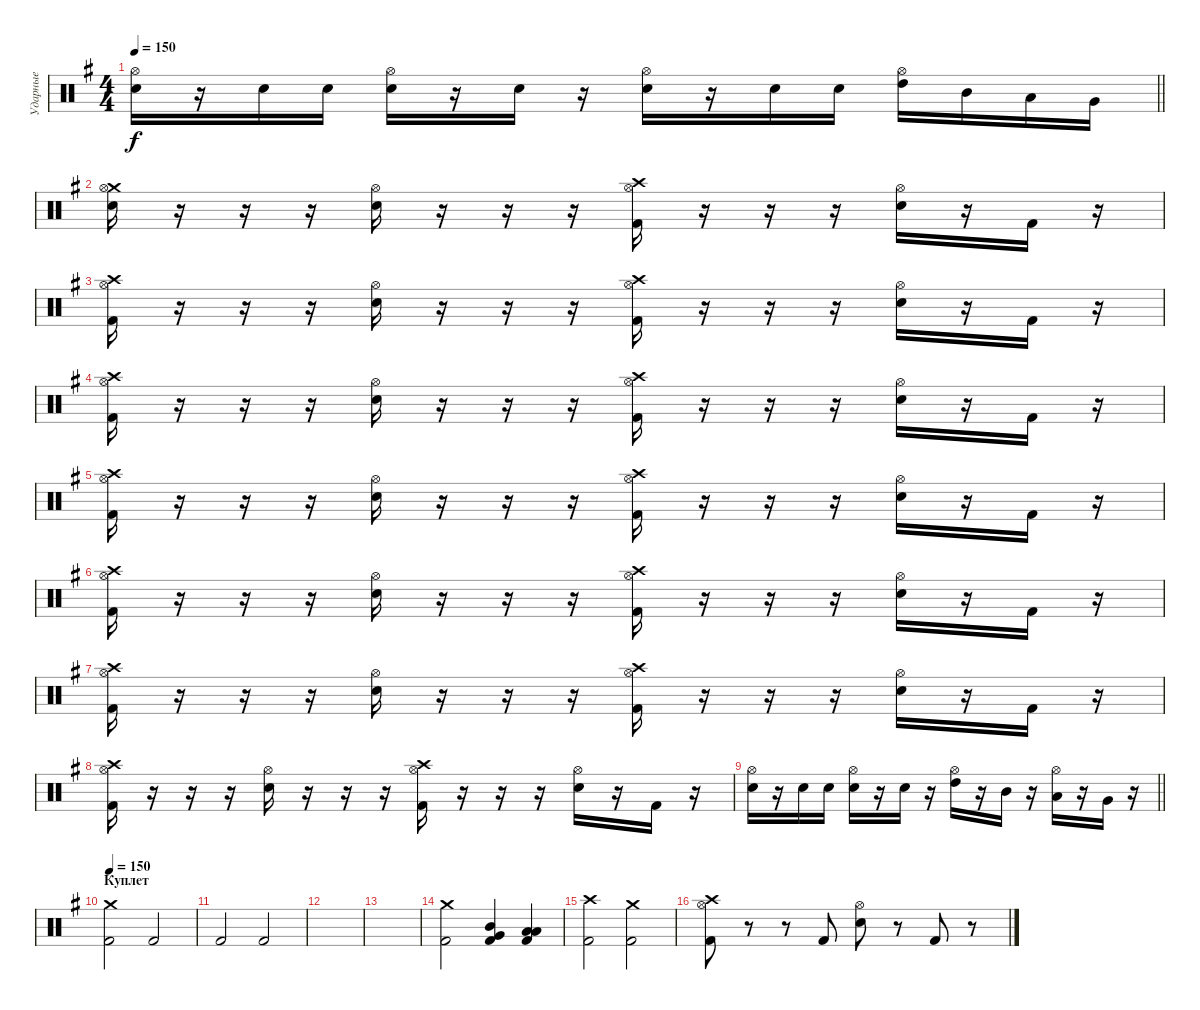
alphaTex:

\track ("Ударные" "Ударные") {instrument percussion}
\staff {score}
\articulation defaults
\ts (4 4)
\tempo 150
\clef neutral
\barLineRight lightlight
\ks eminor
("Electric Snare (hit)" "Hi-Hat (open)").16{dy f} r.16 "Electric Snare (hit)".16 "Electric Snare (hit)".16 ("Electric Snare (hit)" "Hi-Hat (open)").16 r.16 "Electric Snare (hit)".16 r.16 ("Electric Snare (hit)" "Hi-Hat (open)").16 r.16 "Electric Snare (hit)".16 "Electric Snare (hit)".16 ("High Tom (hit)" "Hi-Hat (open)").16 "Mid Tom (hit)".16 "Low Tom (hit)".16 "Very Low Tom (hit)".16 |
("Crash medium (hit)" "Electric Snare (hit)" "Hi-Hat (open)").16 r.16 r.16 r.16 ("Electric Snare (hit)" "Hi-Hat (open)").16 r.16 r.16 r.16 ("Crash high (hit)" "Kick (hit) 2" "Hi-Hat (open)").16 r.16 r.16 r.16 ("Electric Snare (hit)" "Hi-Hat (open)").16 r.16 "Kick (hit) 2".16 r.16 |
("Crash high (hit)" "Kick (hit) 2" "Hi-Hat (open)").16 r.16 r.16 r.16 ("Electric Snare (hit)" "Hi-Hat (open)").16 r.16 r.16 r.16 ("Crash high (hit)" "Kick (hit) 2" "Hi-Hat (open)").16 r.16 r.16 r.16 ("Electric Snare (hit)" "Hi-Hat (open)").16 r.16 "Kick (hit) 2".16 r.16 |
("Crash high (hit)" "Kick (hit) 2" "Hi-Hat (open)").16 r.16 r.16 r.16 ("Electric Snare (hit)" "Hi-Hat (open)").16 r.16 r.16 r.16 ("Crash high (hit)" "Kick (hit) 2" "Hi-Hat (open)").16 r.16 r.16 r.16 ("Electric Snare (hit)" "Hi-Hat (open)").16 r.16 "Kick (hit) 2".16 r.16 |
("Crash high (hit)" "Kick (hit) 2" "Hi-Hat (open)").16 r.16 r.16 r.16 ("Electric Snare (hit)" "Hi-Hat (open)").16 r.16 r.16 r.16 ("Crash high (hit)" "Kick (hit) 2" "Hi-Hat (open)").16 r.16 r.16 r.16 ("Electric Snare (hit)" "Hi-Hat (open)").16 r.16 "Kick (hit) 2".16 r.16 |
("Crash high (hit)" "Kick (hit) 2" "Hi-Hat (open)").16 r.16 r.16 r.16 ("Electric Snare (hit)" "Hi-Hat (open)").16 r.16 r.16 r.16 ("Crash high (hit)" "Kick (hit) 2" "Hi-Hat (open)").16 r.16 r.16 r.16 ("Electric Snare (hit)" "Hi-Hat (open)").16 r.16 "Kick (hit) 2".16 r.16 |
("Crash high (hit)" "Kick (hit) 2" "Hi-Hat (open)").16 r.16 r.16 r.16 ("Electric Snare (hit)" "Hi-Hat (open)").16 r.16 r.16 r.16 ("Crash high (hit)" "Kick (hit) 2" "Hi-Hat (open)").16 r.16 r.16 r.16 ("Electric Snare (hit)" "Hi-Hat (open)").16 r.16 "Kick (hit) 2".16 r.16 |
("Crash high (hit)" "Kick (hit) 2" "Hi-Hat (open)").16 r.16 r.16 r.16 ("Electric Snare (hit)" "Hi-Hat (open)").16 r.16 r.16 r.16 ("Crash high (hit)" "Kick (hit) 2" "Hi-Hat (open)").16 r.16 r.16 r.16 ("Electric Snare (hit)" "Hi-Hat (open)").16 r.16 "Kick (hit) 2".16 r.16 |
\barLineRight lightlight
("Electric Snare (hit)" "Hi-Hat (open)").16 r.16 "Electric Snare (hit)".16 "Electric Snare (hit)".16 ("Electric Snare (hit)" "Hi-Hat (open)").16 r.16 "Electric Snare (hit)".16 r.16 ("High Tom (hit)" "Hi-Hat (open)").16 r.16 "Mid Tom (hit)".16 r.16 ("Low Tom (hit)" "Hi-Hat (open)").16 r.16 "Very Low Tom (hit)".16 r.16 |
\section ("" "Куплет")
\tempo 150
("Crash medium (hit)" "Kick (hit) 2").2 "Kick (hit) 2".2 |
"Kick (hit) 2".2 "Kick (hit) 2".2 |
|
|
("Crash medium (hit)" "Kick (hit) 2").2 ("Very Low Tom (hit)" "Mid Tom (hit)" "Kick (hit) 2").4 ("Low Floor Tom (hit)" "Low Tom (hit)" "Kick (hit) 2").4 |
("Crash high (hit)" "Kick (hit) 2").2 ("Crash medium (hit)" "Kick (hit) 2").2 |
("Crash high (hit)" "Kick (hit) 2" "Hi-Hat (open)").8 r.8 r.8 "Kick (hit) 2".8 ("Electric Snare (hit)" "Hi-Hat (open)").8 r.8 "Kick (hit) 2".8 r.8
